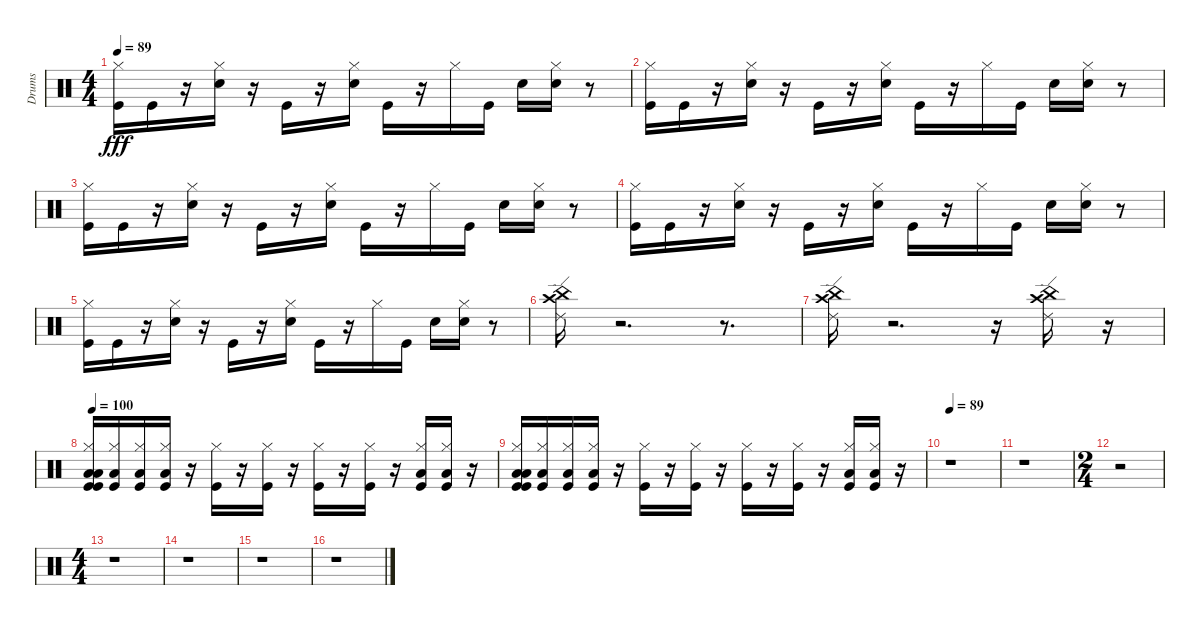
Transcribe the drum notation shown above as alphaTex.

\track ("Drums" "Drums") {instrument percussion}
\staff {score}
\articulation defaults
\ts (4 4)
\tempo 89
\clef neutral
\ks c
("Kick (hit)" "Hi-Hat (closed)").16{dy fff} "Kick (hit)".16 r.16 ("Electric Snare (hit)" "Hi-Hat (closed)").16 r.16 "Kick (hit)".16 r.16 ("Electric Snare (hit)" "Hi-Hat (closed)").16 "Kick (hit)".16 r.16 "Hi-Hat (closed)".16 "Kick (hit)".16 "Electric Snare (hit)".16 ("Electric Snare (hit)" "Hi-Hat (closed)").16 r.8 |
("Kick (hit)" "Hi-Hat (closed)").16 "Kick (hit)".16 r.16 ("Electric Snare (hit)" "Hi-Hat (closed)").16 r.16 "Kick (hit)".16 r.16 ("Electric Snare (hit)" "Hi-Hat (closed)").16 "Kick (hit)".16 r.16 "Hi-Hat (closed)".16 "Kick (hit)".16 "Electric Snare (hit)".16 ("Electric Snare (hit)" "Hi-Hat (closed)").16 r.8 |
("Kick (hit)" "Hi-Hat (closed)").16 "Kick (hit)".16 r.16 ("Electric Snare (hit)" "Hi-Hat (closed)").16 r.16 "Kick (hit)".16 r.16 ("Electric Snare (hit)" "Hi-Hat (closed)").16 "Kick (hit)".16 r.16 "Hi-Hat (closed)".16 "Kick (hit)".16 "Electric Snare (hit)".16 ("Electric Snare (hit)" "Hi-Hat (closed)").16 r.8 |
("Kick (hit)" "Hi-Hat (closed)").16 "Kick (hit)".16 r.16 ("Electric Snare (hit)" "Hi-Hat (closed)").16 r.16 "Kick (hit)".16 r.16 ("Electric Snare (hit)" "Hi-Hat (closed)").16 "Kick (hit)".16 r.16 "Hi-Hat (closed)".16 "Kick (hit)".16 "Electric Snare (hit)".16 ("Electric Snare (hit)" "Hi-Hat (closed)").16 r.8 |
("Kick (hit)" "Hi-Hat (closed)").16 "Kick (hit)".16 r.16 ("Electric Snare (hit)" "Hi-Hat (closed)").16 r.16 "Kick (hit)".16 r.16 ("Electric Snare (hit)" "Hi-Hat (closed)").16 "Kick (hit)".16 r.16 "Hi-Hat (closed)".16 "Kick (hit)".16 "Electric Snare (hit)".16 ("Electric Snare (hit)" "Hi-Hat (closed)").16 r.8 |
("Ride (edge) 2" "China (hit)" "Crash high (hit)").16 r.2{d} r.8{d} |
("Ride (edge) 2" "China (hit)" "Crash high (hit)").16 r.2{d} r.16 ("Ride (edge) 2" "Crash high (hit)" "China (hit)").16 r.16 |
\tempo 100
("Low Tom (hit)" "Kick (hit)" "Hi-Hat (closed)" "Low Tom (hit)" "Kick (hit)").16 ("Hi-Hat (closed)" "Low Tom (hit)" "Kick (hit)").16 ("Hi-Hat (closed)" "Low Tom (hit)" "Kick (hit)").16 ("Hi-Hat (closed)" "Low Tom (hit)" "Kick (hit)").16 r.16 ("Hi-Hat (closed)" "Kick (hit)").16 r.16 ("Hi-Hat (closed)" "Kick (hit)").16 r.16 ("Hi-Hat (closed)" "Kick (hit)").16 r.16 ("Hi-Hat (closed)" "Kick (hit)").16 r.16 ("Hi-Hat (closed)" "Low Tom (hit)" "Kick (hit)").16 ("Hi-Hat (closed)" "Low Tom (hit)" "Kick (hit)").16 r.16 |
("Low Tom (hit)" "Kick (hit)" "Hi-Hat (closed)" "Low Tom (hit)" "Kick (hit)").16 ("Hi-Hat (closed)" "Low Tom (hit)" "Kick (hit)").16 ("Hi-Hat (closed)" "Low Tom (hit)" "Kick (hit)").16 ("Hi-Hat (closed)" "Low Tom (hit)" "Kick (hit)").16 r.16 ("Hi-Hat (closed)" "Kick (hit)").16 r.16 ("Hi-Hat (closed)" "Kick (hit)").16 r.16 ("Hi-Hat (closed)" "Kick (hit)").16 r.16 ("Hi-Hat (closed)" "Kick (hit)").16 r.16 ("Hi-Hat (closed)" "Low Tom (hit)" "Kick (hit)").16 ("Hi-Hat (closed)" "Low Tom (hit)" "Kick (hit)").16 r.16 |
\tempo 89
r.1 |
r.1 |
\ts (2 4)
r.2 |
\ts (4 4)
r.1 |
r.1 |
r.1 |
r.1
